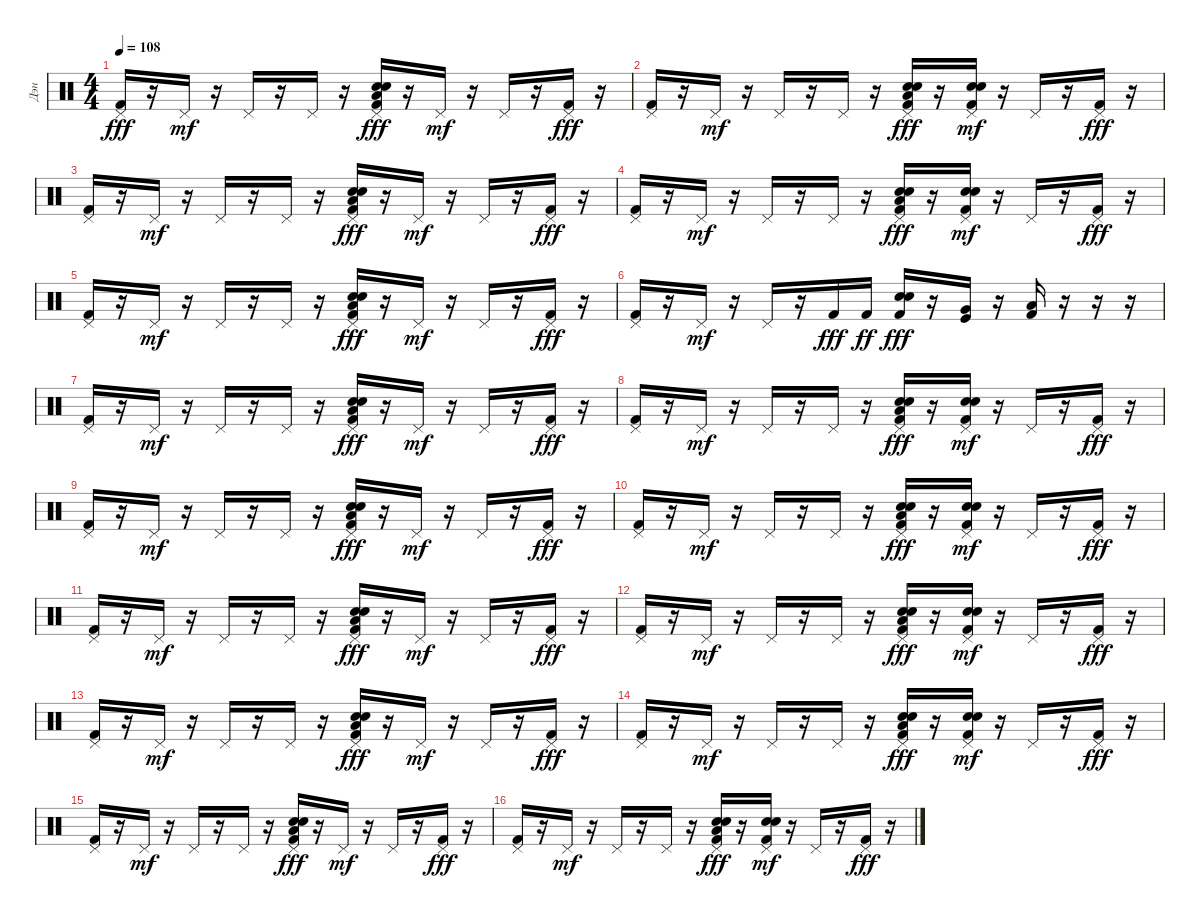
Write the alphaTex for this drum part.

\track ("Дэн" "Дэн") {instrument percussion}
\staff {score}
\articulation defaults
\ts (4 4)
\tempo 108
\clef neutral
\ks c
("Pedal Hi-Hat (hit)" "Kick (hit) 2").16{dy fff} r.16 "Pedal Hi-Hat (hit)".16{dy mf} r.16 "Pedal Hi-Hat (hit)".16 r.16 "Pedal Hi-Hat (hit)".16 r.16 ("Pedal Hi-Hat (hit)" "Snare (hit) 2" "Low Floor Tom (hit)" "Electric Snare (hit)" "Kick (hit) 2").16{dy fff} r.16 "Pedal Hi-Hat (hit)".16{dy mf} r.16 "Pedal Hi-Hat (hit)".16 r.16 ("Pedal Hi-Hat (hit)" "Kick (hit) 2").16{dy fff} r.16 |
("Pedal Hi-Hat (hit)" "Kick (hit) 2").16 r.16 "Pedal Hi-Hat (hit)".16{dy mf} r.16 "Pedal Hi-Hat (hit)".16 r.16 "Pedal Hi-Hat (hit)".16 r.16 ("Pedal Hi-Hat (hit)" "Snare (hit) 2" "Low Floor Tom (hit)" "Electric Snare (hit)" "Kick (hit) 2").16{dy fff} r.16 ("Pedal Hi-Hat (hit)" "Snare (hit) 2" "Electric Snare (hit)" "Kick (hit) 2").16{dy mf} r.16 "Pedal Hi-Hat (hit)".16 r.16 ("Pedal Hi-Hat (hit)" "Kick (hit) 2").16{dy fff} r.16 |
("Pedal Hi-Hat (hit)" "Kick (hit) 2").16 r.16 "Pedal Hi-Hat (hit)".16{dy mf} r.16 "Pedal Hi-Hat (hit)".16 r.16 "Pedal Hi-Hat (hit)".16 r.16 ("Pedal Hi-Hat (hit)" "Snare (hit) 2" "Low Floor Tom (hit)" "Electric Snare (hit)" "Kick (hit) 2").16{dy fff} r.16 "Pedal Hi-Hat (hit)".16{dy mf} r.16 "Pedal Hi-Hat (hit)".16 r.16 ("Pedal Hi-Hat (hit)" "Kick (hit) 2").16{dy fff} r.16 |
("Pedal Hi-Hat (hit)" "Kick (hit) 2").16 r.16 "Pedal Hi-Hat (hit)".16{dy mf} r.16 "Pedal Hi-Hat (hit)".16 r.16 "Pedal Hi-Hat (hit)".16 r.16 ("Pedal Hi-Hat (hit)" "Snare (hit) 2" "Low Floor Tom (hit)" "Electric Snare (hit)" "Kick (hit) 2").16{dy fff} r.16 ("Pedal Hi-Hat (hit)" "Snare (hit) 2" "Electric Snare (hit)" "Kick (hit) 2").16{dy mf} r.16 "Pedal Hi-Hat (hit)".16 r.16 ("Pedal Hi-Hat (hit)" "Kick (hit) 2").16{dy fff} r.16 |
("Pedal Hi-Hat (hit)" "Kick (hit) 2").16 r.16 "Pedal Hi-Hat (hit)".16{dy mf} r.16 "Pedal Hi-Hat (hit)".16 r.16 "Pedal Hi-Hat (hit)".16 r.16 ("Pedal Hi-Hat (hit)" "Snare (hit) 2" "Low Floor Tom (hit)" "Electric Snare (hit)" "Kick (hit) 2").16{dy fff} r.16 "Pedal Hi-Hat (hit)".16{dy mf} r.16 "Pedal Hi-Hat (hit)".16 r.16 ("Pedal Hi-Hat (hit)" "Kick (hit) 2").16{dy fff} r.16 |
("Pedal Hi-Hat (hit)" "Kick (hit) 2").16 r.16 "Pedal Hi-Hat (hit)".16{dy mf} r.16 "Pedal Hi-Hat (hit)".16 r.16 "Kick (hit) 2".16{dy fff} "Kick (hit) 2".16{dy ff} ("Snare (hit) 2" "Electric Snare (hit)" "Kick (hit) 2").16{dy fff} r.16 ("Very Low Tom (hit)" "Kick (hit)").16 r.16 ("Low Floor Tom (hit)" "Kick (hit) 2").16 r.16 r.16 r.16 |
("Pedal Hi-Hat (hit)" "Kick (hit) 2").16 r.16 "Pedal Hi-Hat (hit)".16{dy mf} r.16 "Pedal Hi-Hat (hit)".16 r.16 "Pedal Hi-Hat (hit)".16 r.16 ("Pedal Hi-Hat (hit)" "Snare (hit) 2" "Low Floor Tom (hit)" "Electric Snare (hit)" "Kick (hit) 2").16{dy fff} r.16 "Pedal Hi-Hat (hit)".16{dy mf} r.16 "Pedal Hi-Hat (hit)".16 r.16 ("Pedal Hi-Hat (hit)" "Kick (hit) 2").16{dy fff} r.16 |
("Pedal Hi-Hat (hit)" "Kick (hit) 2").16 r.16 "Pedal Hi-Hat (hit)".16{dy mf} r.16 "Pedal Hi-Hat (hit)".16 r.16 "Pedal Hi-Hat (hit)".16 r.16 ("Pedal Hi-Hat (hit)" "Snare (hit) 2" "Low Floor Tom (hit)" "Electric Snare (hit)" "Kick (hit) 2").16{dy fff} r.16 ("Pedal Hi-Hat (hit)" "Snare (hit) 2" "Electric Snare (hit)" "Kick (hit) 2").16{dy mf} r.16 "Pedal Hi-Hat (hit)".16 r.16 ("Pedal Hi-Hat (hit)" "Kick (hit) 2").16{dy fff} r.16 |
("Pedal Hi-Hat (hit)" "Kick (hit) 2").16 r.16 "Pedal Hi-Hat (hit)".16{dy mf} r.16 "Pedal Hi-Hat (hit)".16 r.16 "Pedal Hi-Hat (hit)".16 r.16 ("Pedal Hi-Hat (hit)" "Snare (hit) 2" "Low Floor Tom (hit)" "Electric Snare (hit)" "Kick (hit) 2").16{dy fff} r.16 "Pedal Hi-Hat (hit)".16{dy mf} r.16 "Pedal Hi-Hat (hit)".16 r.16 ("Pedal Hi-Hat (hit)" "Kick (hit) 2").16{dy fff} r.16 |
("Pedal Hi-Hat (hit)" "Kick (hit) 2").16 r.16 "Pedal Hi-Hat (hit)".16{dy mf} r.16 "Pedal Hi-Hat (hit)".16 r.16 "Pedal Hi-Hat (hit)".16 r.16 ("Pedal Hi-Hat (hit)" "Snare (hit) 2" "Low Floor Tom (hit)" "Electric Snare (hit)" "Kick (hit) 2").16{dy fff} r.16 ("Pedal Hi-Hat (hit)" "Snare (hit) 2" "Electric Snare (hit)" "Kick (hit) 2").16{dy mf} r.16 "Pedal Hi-Hat (hit)".16 r.16 ("Pedal Hi-Hat (hit)" "Kick (hit) 2").16{dy fff} r.16 |
("Pedal Hi-Hat (hit)" "Kick (hit) 2").16 r.16 "Pedal Hi-Hat (hit)".16{dy mf} r.16 "Pedal Hi-Hat (hit)".16 r.16 "Pedal Hi-Hat (hit)".16 r.16 ("Pedal Hi-Hat (hit)" "Snare (hit) 2" "Low Floor Tom (hit)" "Electric Snare (hit)" "Kick (hit) 2").16{dy fff} r.16 "Pedal Hi-Hat (hit)".16{dy mf} r.16 "Pedal Hi-Hat (hit)".16 r.16 ("Pedal Hi-Hat (hit)" "Kick (hit) 2").16{dy fff} r.16 |
("Pedal Hi-Hat (hit)" "Kick (hit) 2").16 r.16 "Pedal Hi-Hat (hit)".16{dy mf} r.16 "Pedal Hi-Hat (hit)".16 r.16 "Pedal Hi-Hat (hit)".16 r.16 ("Pedal Hi-Hat (hit)" "Snare (hit) 2" "Low Floor Tom (hit)" "Electric Snare (hit)" "Kick (hit) 2").16{dy fff} r.16 ("Pedal Hi-Hat (hit)" "Snare (hit) 2" "Electric Snare (hit)" "Kick (hit) 2").16{dy mf} r.16 "Pedal Hi-Hat (hit)".16 r.16 ("Pedal Hi-Hat (hit)" "Kick (hit) 2").16{dy fff} r.16 |
("Pedal Hi-Hat (hit)" "Kick (hit) 2").16 r.16 "Pedal Hi-Hat (hit)".16{dy mf} r.16 "Pedal Hi-Hat (hit)".16 r.16 "Pedal Hi-Hat (hit)".16 r.16 ("Pedal Hi-Hat (hit)" "Snare (hit) 2" "Low Floor Tom (hit)" "Electric Snare (hit)" "Kick (hit) 2").16{dy fff} r.16 "Pedal Hi-Hat (hit)".16{dy mf} r.16 "Pedal Hi-Hat (hit)".16 r.16 ("Pedal Hi-Hat (hit)" "Kick (hit) 2").16{dy fff} r.16 |
("Pedal Hi-Hat (hit)" "Kick (hit) 2").16 r.16 "Pedal Hi-Hat (hit)".16{dy mf} r.16 "Pedal Hi-Hat (hit)".16 r.16 "Pedal Hi-Hat (hit)".16 r.16 ("Pedal Hi-Hat (hit)" "Snare (hit) 2" "Low Floor Tom (hit)" "Electric Snare (hit)" "Kick (hit) 2").16{dy fff} r.16 ("Pedal Hi-Hat (hit)" "Snare (hit) 2" "Electric Snare (hit)" "Kick (hit) 2").16{dy mf} r.16 "Pedal Hi-Hat (hit)".16 r.16 ("Pedal Hi-Hat (hit)" "Kick (hit) 2").16{dy fff} r.16 |
("Pedal Hi-Hat (hit)" "Kick (hit) 2").16 r.16 "Pedal Hi-Hat (hit)".16{dy mf} r.16 "Pedal Hi-Hat (hit)".16 r.16 "Pedal Hi-Hat (hit)".16 r.16 ("Pedal Hi-Hat (hit)" "Snare (hit) 2" "Low Floor Tom (hit)" "Electric Snare (hit)" "Kick (hit) 2").16{dy fff} r.16 "Pedal Hi-Hat (hit)".16{dy mf} r.16 "Pedal Hi-Hat (hit)".16 r.16 ("Pedal Hi-Hat (hit)" "Kick (hit) 2").16{dy fff} r.16 |
("Pedal Hi-Hat (hit)" "Kick (hit) 2").16 r.16 "Pedal Hi-Hat (hit)".16{dy mf} r.16 "Pedal Hi-Hat (hit)".16 r.16 "Pedal Hi-Hat (hit)".16 r.16 ("Pedal Hi-Hat (hit)" "Snare (hit) 2" "Low Floor Tom (hit)" "Electric Snare (hit)" "Kick (hit) 2").16{dy fff} r.16 ("Pedal Hi-Hat (hit)" "Snare (hit) 2" "Electric Snare (hit)" "Kick (hit) 2").16{dy mf} r.16 "Pedal Hi-Hat (hit)".16 r.16 ("Pedal Hi-Hat (hit)" "Kick (hit) 2").16{dy fff} r.16
